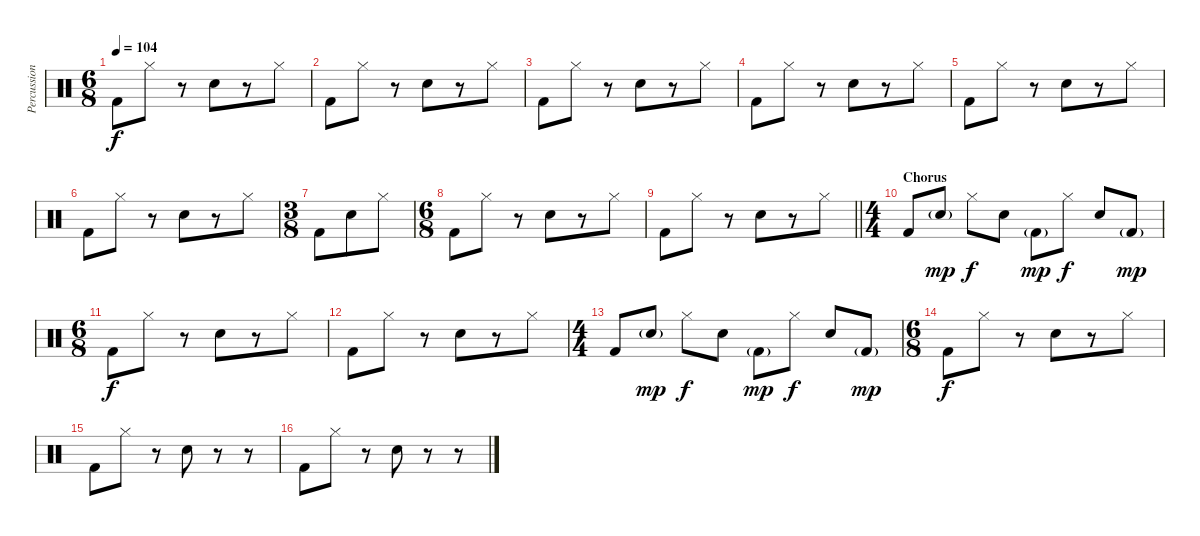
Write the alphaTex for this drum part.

\track ("Percussion" "Percussion") {instrument percussion}
\staff {score}
\articulation defaults
\ts (6 8)
\tempo 104
\clef neutral
\ks c "Kick (hit) 2".8{dy f} "Hi-Hat (closed)".8
r.8 "Snare (hit) 2".8 r.8 "Hi-Hat (closed)".8 |
"Kick (hit) 2".8 "Hi-Hat (closed)".8 r.8 "Snare (hit) 2".8 r.8 "Hi-Hat (closed)".8 |
"Kick (hit) 2".8 "Hi-Hat (closed)".8 r.8 "Snare (hit) 2".8 r.8 "Hi-Hat (closed)".8 |
"Kick (hit) 2".8 "Hi-Hat (closed)".8 r.8 "Snare (hit) 2".8 r.8 "Hi-Hat (closed)".8 |
"Kick (hit) 2".8 "Hi-Hat (closed)".8 r.8 "Snare (hit) 2".8 r.8 "Hi-Hat (closed)".8 |
"Kick (hit) 2".8 "Hi-Hat (closed)".8 r.8 "Snare (hit) 2".8 r.8 "Hi-Hat (closed)".8 |
\ts (3 8)
"Kick (hit) 2".8 "Snare (hit) 2".8 "Hi-Hat (closed)".8 |
\ts (6 8)
"Kick (hit) 2".8 "Hi-Hat (closed)".8 r.8 "Snare (hit) 2".8 r.8 "Hi-Hat (closed)".8 |
\barLineRight lightlight "Kick (hit) 2".8 "Hi-Hat (closed)".8
r.8 "Snare (hit) 2".8 r.8 "Hi-Hat (closed)".8 |
\ts (4 4)
\section ("" "Chorus")
"Kick (hit) 2".8 "Snare (hit) 2"{g}.8{dy mp} "Hi-Hat (closed)".8{dy f} "Snare (hit) 2".8 "Kick (hit) 2"{g}.8{dy mp} "Hi-Hat (closed)".8{dy f} "Snare (hit) 2".8 "Kick (hit) 2"{g}.8{dy mp} |
\ts (6 8)
"Kick (hit) 2".8{dy f} "Hi-Hat (closed)".8 r.8 "Snare (hit) 2".8 r.8 "Hi-Hat (closed)".8 |
"Kick (hit) 2".8 "Hi-Hat (closed)".8 r.8 "Snare (hit) 2".8 r.8 "Hi-Hat (closed)".8 |
\ts (4 4)
"Kick (hit) 2".8 "Snare (hit) 2"{g}.8{dy mp} "Hi-Hat (closed)".8{dy f} "Snare (hit) 2".8 "Kick (hit) 2"{g}.8{dy mp} "Hi-Hat (closed)".8{dy f} "Snare (hit) 2".8 "Kick (hit) 2"{g}.8{dy mp} |
\ts (6 8)
"Kick (hit) 2".8{dy f} "Hi-Hat (closed)".8 r.8 "Snare (hit) 2".8 r.8 "Hi-Hat (closed)".8 |
"Kick (hit) 2".8 "Hi-Hat (closed)".8 r.8 "Snare (hit) 2".8 r.8 r.8 |
"Kick (hit) 2".8 "Hi-Hat (closed)".8 r.8 "Snare (hit) 2".8 r.8 r.8
